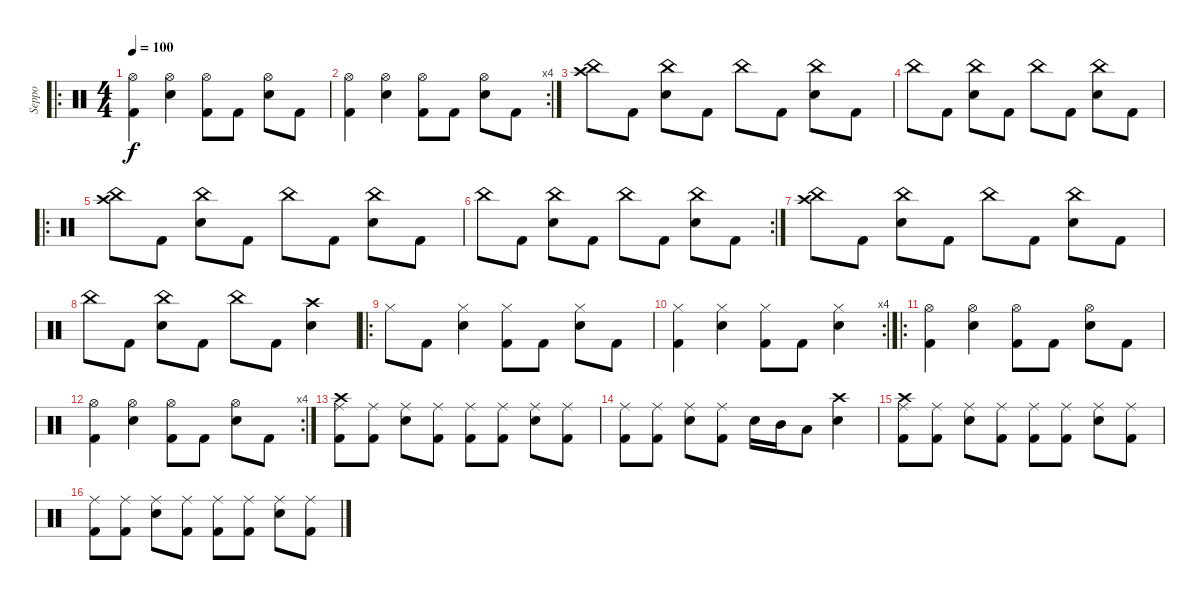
\track ("Seppo" "Seppo") {instrument percussion}
\staff {score}
\articulation defaults
\ro
\ts (4 4)
\tempo 100
\clef neutral
\ks c
("Hi-Hat (open)" "Kick (hit) 2").4{dy f} ("Hi-Hat (open)" "Electric Snare (hit)").4 ("Hi-Hat (open)" "Kick (hit) 2").8 "Kick (hit) 2".8 ("Hi-Hat (open)" "Electric Snare (hit)").8 "Kick (hit) 2".8 |
\rc 4
("Hi-Hat (open)" "Kick (hit) 2").4 ("Hi-Hat (open)" "Electric Snare (hit)").4 ("Hi-Hat (open)" "Kick (hit) 2").8 "Kick (hit) 2".8 ("Hi-Hat (open)" "Electric Snare (hit)").8 "Kick (hit) 2".8 |
("Crash high (hit)" "China (hit)").8 "Kick (hit) 2".8 ("China (hit)" "Electric Snare (hit)").8 "Kick (hit) 2".8 "China (hit)".8 "Kick (hit) 2".8 ("China (hit)" "Electric Snare (hit)").8 "Kick (hit) 2".8 |
"China (hit)".8 "Kick (hit) 2".8 ("China (hit)" "Electric Snare (hit)").8 "Kick (hit) 2".8 "China (hit)".8 "Kick (hit) 2".8 ("China (hit)" "Electric Snare (hit)").8 "Kick (hit) 2".8 |
\ro
("Crash high (hit)" "China (hit)").8 "Kick (hit) 2".8 ("China (hit)" "Electric Snare (hit)").8 "Kick (hit) 2".8 "China (hit)".8 "Kick (hit) 2".8 ("China (hit)" "Electric Snare (hit)").8 "Kick (hit) 2".8 |
\rc 2 "China (hit)".8 "Kick (hit) 2".8
("China (hit)" "Electric Snare (hit)").8 "Kick (hit) 2".8 "China (hit)".8 "Kick (hit) 2".8 ("China (hit)" "Electric Snare (hit)").8 "Kick (hit) 2".8 |
("Crash high (hit)" "China (hit)").8 "Kick (hit) 2".8 ("China (hit)" "Electric Snare (hit)").8 "Kick (hit) 2".8 "China (hit)".8 "Kick (hit) 2".8 ("China (hit)" "Electric Snare (hit)").8 "Kick (hit) 2".8 |
"China (hit)".8 "Kick (hit) 2".8 ("China (hit)" "Electric Snare (hit)").8 "Kick (hit) 2".8 "China (hit)".8 "Kick (hit) 2".8 ("Crash high (hit)" "Electric Snare (hit)").4 |
\ro "Hi-Hat (closed)".8 "Kick (hit) 2".8
("Hi-Hat (closed)" "Electric Snare (hit)").4 ("Hi-Hat (closed)" "Kick (hit) 2").8 "Kick (hit) 2".8 ("Hi-Hat (closed)" "Electric Snare (hit)").8 "Kick (hit) 2".8 |
\rc 4
("Hi-Hat (closed)" "Kick (hit) 2").4 ("Hi-Hat (closed)" "Electric Snare (hit)").4 ("Hi-Hat (closed)" "Kick (hit) 2").8 "Kick (hit) 2".8 ("Hi-Hat (closed)" "Electric Snare (hit)").4 |
\ro
("Hi-Hat (open)" "Kick (hit) 2").4 ("Hi-Hat (open)" "Electric Snare (hit)").4 ("Hi-Hat (open)" "Kick (hit) 2").8 "Kick (hit) 2".8 ("Hi-Hat (open)" "Electric Snare (hit)").8 "Kick (hit) 2".8 |
\rc 4
("Hi-Hat (open)" "Kick (hit) 2").4 ("Hi-Hat (open)" "Electric Snare (hit)").4 ("Hi-Hat (open)" "Kick (hit) 2").8 "Kick (hit) 2".8 ("Hi-Hat (open)" "Electric Snare (hit)").8 "Kick (hit) 2".8 |
("Crash high (hit)" "Ride (middle)" "Kick (hit) 2").8 ("Ride (middle)" "Kick (hit) 2").8 ("Ride (middle)" "Electric Snare (hit)").8 ("Ride (middle)" "Kick (hit) 2").8 ("Ride (middle)" "Kick (hit) 2").8 ("Ride (middle)" "Kick (hit) 2").8 ("Ride (middle)" "Electric Snare (hit)").8 ("Ride (middle)" "Kick (hit) 2").8 |
("Ride (middle)" "Kick (hit) 2").8 ("Ride (middle)" "Kick (hit) 2").8 ("Ride (middle)" "Electric Snare (hit)").8 ("Ride (middle)" "Kick (hit) 2").8 "Electric Snare (hit)".16 "Mid Tom (hit)".16 "Low Tom (hit)".8 ("Crash high (hit)" "Electric Snare (hit)").4 |
("Crash high (hit)" "Ride (middle)" "Kick (hit) 2").8 ("Ride (middle)" "Kick (hit) 2").8 ("Ride (middle)" "Electric Snare (hit)").8 ("Ride (middle)" "Kick (hit) 2").8 ("Ride (middle)" "Kick (hit) 2").8 ("Ride (middle)" "Kick (hit) 2").8 ("Ride (middle)" "Electric Snare (hit)").8 ("Ride (middle)" "Kick (hit) 2").8 |
("Ride (middle)" "Kick (hit) 2").8 ("Ride (middle)" "Kick (hit) 2").8 ("Ride (middle)" "Electric Snare (hit)").8 ("Ride (middle)" "Kick (hit) 2").8 ("Ride (middle)" "Kick (hit) 2").8 ("Ride (middle)" "Kick (hit) 2").8 ("Ride (middle)" "Electric Snare (hit)").8 ("Ride (middle)" "Kick (hit) 2").8
